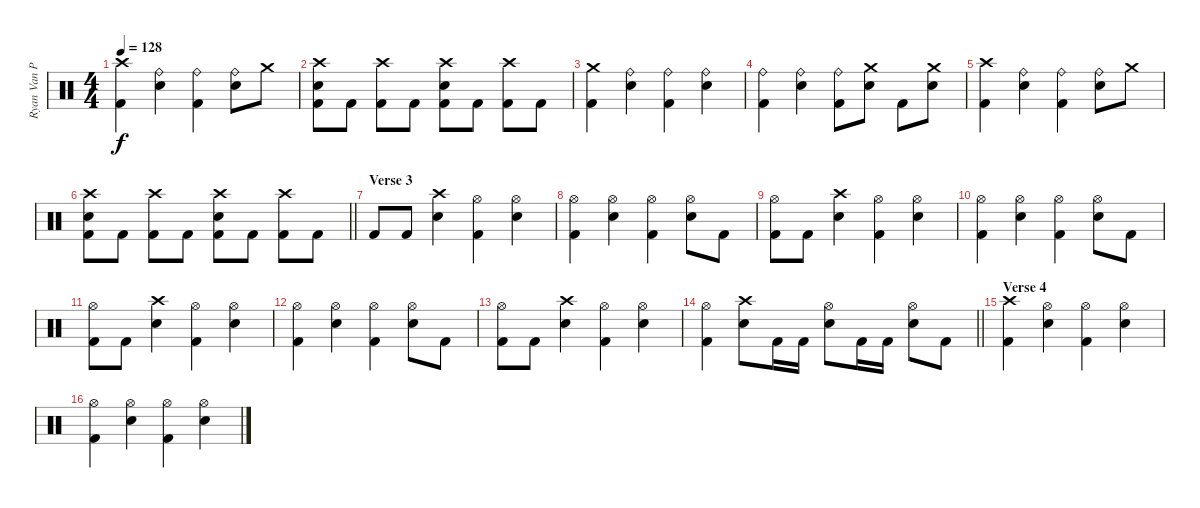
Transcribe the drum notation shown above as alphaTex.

\track ("Ryan Van Poederooyen" "Ryan Van P") {instrument percussion}
\staff {score}
\articulation defaults
\ts (4 4)
\tempo 128
\clef neutral
\ks c
("Crash high (hit)" "Kick (hit) 2").4{dy f} ("Ride (bell)" "Electric Snare (hit)").4 ("Ride (bell)" "Kick (hit) 2").4 ("Ride (bell)" "Electric Snare (hit)").8 "Crash medium (hit)".8 |
("Crash high (hit)" "Electric Snare (hit)" "Kick (hit) 2").8 "Kick (hit) 2".8 ("Crash high (hit)" "Kick (hit) 2").8 "Kick (hit) 2".8 ("Crash high (hit)" "Electric Snare (hit)" "Kick (hit) 2").8 "Kick (hit) 2".8 ("Crash high (hit)" "Kick (hit) 2").8 "Kick (hit) 2".8 |
("Crash medium (hit)" "Kick (hit) 2").4 ("Ride (bell)" "Electric Snare (hit)").4 ("Ride (bell)" "Kick (hit) 2").4 ("Ride (bell)" "Electric Snare (hit)").4 |
("Ride (bell)" "Kick (hit) 2").4 ("Ride (bell)" "Electric Snare (hit)").4 ("Ride (bell)" "Kick (hit) 2").8 ("Crash medium (hit)" "Electric Snare (hit)").8 "Kick (hit) 2".8 ("Crash medium (hit)" "Electric Snare (hit)").8 |
("Crash high (hit)" "Kick (hit) 2").4 ("Ride (bell)" "Electric Snare (hit)").4 ("Ride (bell)" "Kick (hit) 2").4 ("Ride (bell)" "Electric Snare (hit)").8 "Crash medium (hit)".8 |
\barLineRight lightlight
("Crash high (hit)" "Electric Snare (hit)" "Kick (hit) 2").8 "Kick (hit) 2".8 ("Crash high (hit)" "Kick (hit) 2").8 "Kick (hit) 2".8 ("Crash high (hit)" "Electric Snare (hit)" "Kick (hit) 2").8 "Kick (hit) 2".8 ("Crash high (hit)" "Kick (hit) 2").8 "Kick (hit) 2".8 |
\section ("" "Verse 3")
"Kick (hit) 2".8 "Kick (hit) 2".8 ("Crash high (hit)" "Electric Snare (hit)").4 ("Hi-Hat (open)" "Kick (hit) 2").4 ("Hi-Hat (open)" "Electric Snare (hit)").4 |
("Hi-Hat (open)" "Kick (hit) 2").4 ("Hi-Hat (open)" "Electric Snare (hit)").4 ("Hi-Hat (open)" "Kick (hit) 2").4 ("Hi-Hat (open)" "Electric Snare (hit)").8 "Kick (hit) 2".8 |
("Hi-Hat (open)" "Kick (hit) 2").8 "Kick (hit) 2".8 ("Crash high (hit)" "Electric Snare (hit)").4 ("Hi-Hat (open)" "Kick (hit) 2").4 ("Hi-Hat (open)" "Electric Snare (hit)").4 |
("Hi-Hat (open)" "Kick (hit) 2").4 ("Hi-Hat (open)" "Electric Snare (hit)").4 ("Hi-Hat (open)" "Kick (hit) 2").4 ("Hi-Hat (open)" "Electric Snare (hit)").8 "Kick (hit) 2".8 |
("Hi-Hat (open)" "Kick (hit) 2").8 "Kick (hit) 2".8 ("Crash high (hit)" "Electric Snare (hit)").4 ("Hi-Hat (open)" "Kick (hit) 2").4 ("Hi-Hat (open)" "Electric Snare (hit)").4 |
("Hi-Hat (open)" "Kick (hit) 2").4 ("Hi-Hat (open)" "Electric Snare (hit)").4 ("Hi-Hat (open)" "Kick (hit) 2").4 ("Hi-Hat (open)" "Electric Snare (hit)").8 "Kick (hit) 2".8 |
("Hi-Hat (open)" "Kick (hit) 2").8 "Kick (hit) 2".8 ("Crash high (hit)" "Electric Snare (hit)").4 ("Hi-Hat (open)" "Kick (hit) 2").4 ("Hi-Hat (open)" "Electric Snare (hit)").4 |
\barLineRight lightlight
("Hi-Hat (open)" "Kick (hit) 2").4 ("Crash high (hit)" "Electric Snare (hit)").8 "Kick (hit) 2".16 "Kick (hit) 2".16 ("Hi-Hat (open)" "Electric Snare (hit)").8 "Kick (hit) 2".16 "Kick (hit) 2".16 ("Hi-Hat (open)" "Electric Snare (hit)").8 "Kick (hit) 2".8 |
\section ("" "Verse 4")
("Crash high (hit)" "Kick (hit) 2").4 ("Hi-Hat (open)" "Electric Snare (hit)").4 ("Hi-Hat (open)" "Kick (hit) 2").4 ("Hi-Hat (open)" "Electric Snare (hit)").4 |
("Hi-Hat (open)" "Kick (hit) 2").4 ("Hi-Hat (open)" "Electric Snare (hit)").4 ("Hi-Hat (open)" "Kick (hit) 2").4 ("Hi-Hat (open)" "Electric Snare (hit)").4
